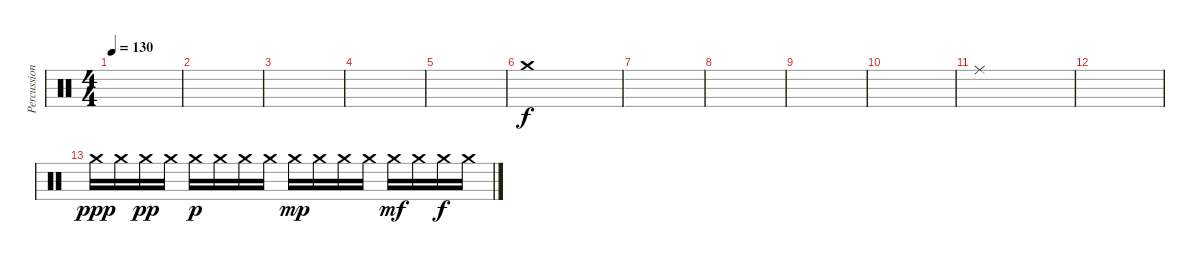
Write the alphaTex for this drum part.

\track ("Percussion" "Percussion") {instrument percussion}
\staff {score}
\articulation defaults
\ts (4 4)
\tempo 130
\clef neutral
\ks c
|
|
|
|
|
"Crash medium (hit)".1 |
|
|
|
|
"Ride (middle)".1 |
|
"Crash medium (hit)".16{dy ppp} "Crash medium (hit)".16 "Crash medium (hit)".16{dy pp} "Crash medium (hit)".16 "Crash medium (hit)".16{dy p} "Crash medium (hit)".16 "Crash medium (hit)".16 "Crash medium (hit)".16 "Crash medium (hit)".16{dy mp} "Crash medium (hit)".16 "Crash medium (hit)".16 "Crash medium (hit)".16 "Crash medium (hit)".16{dy mf} "Crash medium (hit)".16 "Crash medium (hit)".16{dy f} "Crash medium (hit)".16
